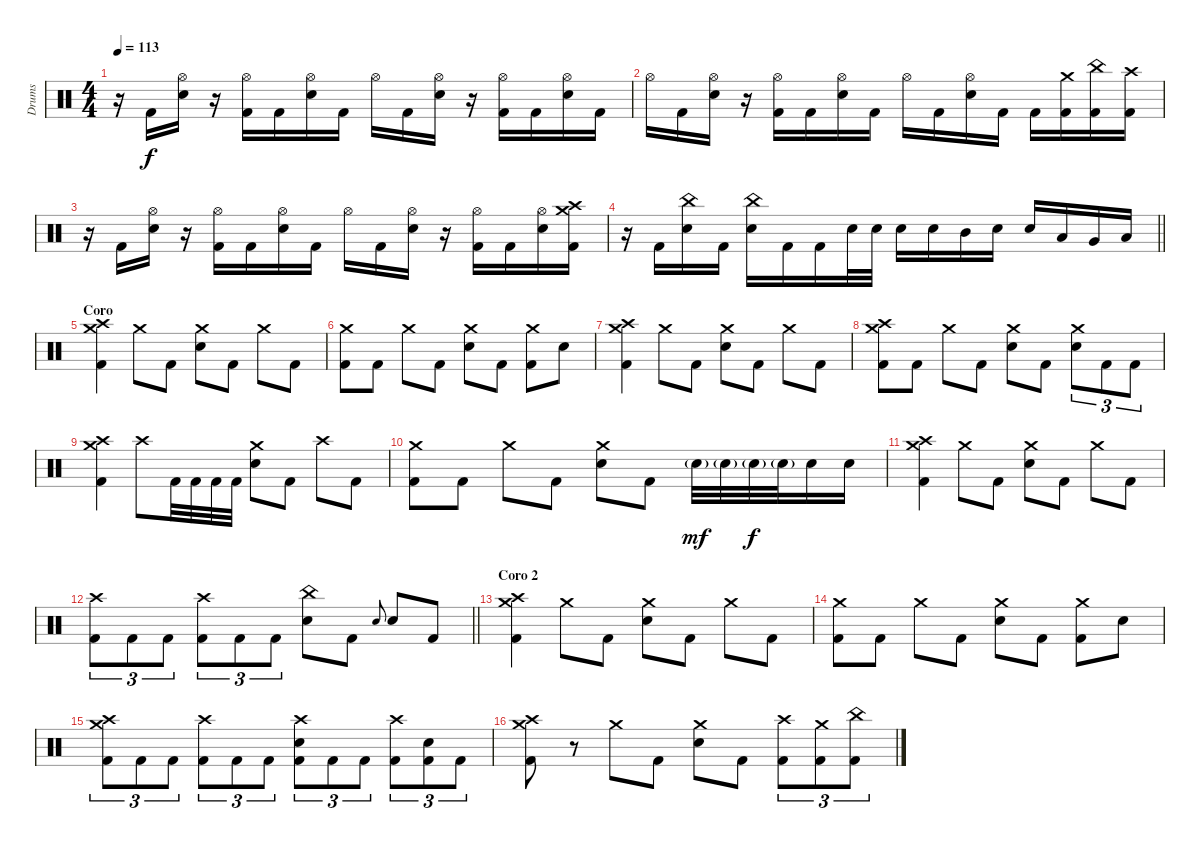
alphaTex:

\track ("Drums" "Drums") {instrument percussion}
\staff {score}
\articulation defaults
\ts (4 4)
\tempo 113
\clef neutral
\ks c
r.16{dy f} "Kick (hit) 2".16 ("Hi-Hat (open)" "Electric Snare (hit)").16 r.16 ("Hi-Hat (open)" "Kick (hit) 2").16 "Kick (hit) 2".16 ("Hi-Hat (open)" "Electric Snare (hit)").16 "Kick (hit) 2".16 "Hi-Hat (open)".16 "Kick (hit) 2".16 ("Hi-Hat (open)" "Electric Snare (hit)").16 r.16 ("Hi-Hat (open)" "Kick (hit) 2").16 "Kick (hit) 2".16 ("Hi-Hat (open)" "Electric Snare (hit)").16 "Kick (hit) 2".16 |
"Hi-Hat (open)".16 "Kick (hit) 2".16 ("Hi-Hat (open)" "Electric Snare (hit)").16 r.16 ("Hi-Hat (open)" "Kick (hit) 2").16 "Kick (hit) 2".16 ("Hi-Hat (open)" "Electric Snare (hit)").16 "Kick (hit) 2".16 "Hi-Hat (open)".16 "Kick (hit) 2".16 ("Hi-Hat (open)" "Electric Snare (hit)").16 "Kick (hit) 2".16 "Kick (hit) 2".16 ("Crash medium (hit)" "Kick (hit) 2").16 ("China (hit)" "Kick (hit) 2").16 ("Crash high (hit)" "Kick (hit) 2").16 |
r.16 "Kick (hit) 2".16 ("Hi-Hat (open)" "Electric Snare (hit)").16 r.16 ("Hi-Hat (open)" "Kick (hit) 2").16 "Kick (hit) 2".16 ("Hi-Hat (open)" "Electric Snare (hit)").16 "Kick (hit) 2".16 "Hi-Hat (open)".16 "Kick (hit) 2".16 ("Hi-Hat (open)" "Electric Snare (hit)").16 r.16 ("Hi-Hat (open)" "Kick (hit) 2").16 "Kick (hit) 2".16 ("Hi-Hat (open)" "Electric Snare (hit)").16 ("Crash high (hit)" "Crash medium (hit)" "Kick (hit) 2").16 |
\barLineRight lightlight
r.16 "Kick (hit) 2".16 ("China (hit)" "Electric Snare (hit)").16 "Kick (hit) 2".16 ("China (hit)" "Electric Snare (hit)").16 "Kick (hit) 2".16 "Kick (hit) 2".16 "Electric Snare (hit)".32 "Electric Snare (hit)".32 "Electric Snare (hit)".16 "Electric Snare (hit)".16 "Mid Tom (hit)".16 "Electric Snare (hit)".16 "Electric Snare (hit)".16 "Low Tom (hit)".16 "Very Low Tom (hit)".16 "Low Floor Tom (hit)".16 |
\section ("" "Coro")
("Crash medium (hit)" "Crash high (hit)" "Kick (hit) 2").4 "Crash medium (hit)".8 "Kick (hit) 2".8 ("Crash medium (hit)" "Electric Snare (hit)").8 "Kick (hit) 2".8 "Crash medium (hit)".8 "Kick (hit) 2".8 |
("Crash medium (hit)" "Kick (hit) 2").8 "Kick (hit) 2".8 "Crash medium (hit)".8 "Kick (hit) 2".8 ("Crash medium (hit)" "Electric Snare (hit)").8 "Kick (hit) 2".8 ("Crash medium (hit)" "Kick (hit) 2").8 "Electric Snare (hit)".8 |
("Crash medium (hit)" "Crash high (hit)" "Kick (hit) 2").4 "Crash medium (hit)".8 "Kick (hit) 2".8 ("Crash medium (hit)" "Electric Snare (hit)").8 "Kick (hit) 2".8 "Crash medium (hit)".8 "Kick (hit) 2".8 |
("Crash medium (hit)" "Crash high (hit)" "Kick (hit) 2").8 "Kick (hit) 2".8 "Crash medium (hit)".8 "Kick (hit) 2".8 ("Crash medium (hit)" "Electric Snare (hit)").8 "Kick (hit) 2".8 ("Crash medium (hit)" "Electric Snare (hit)").8{tu (3 2)} "Kick (hit) 2".8{tu (3 2)} "Kick (hit) 2".8{tu (3 2)} |
("Crash medium (hit)" "Crash high (hit)" "Kick (hit) 2").4 "Crash high (hit)".8 "Kick (hit) 2".32 "Kick (hit) 2".32 "Kick (hit) 2".32 "Kick (hit) 2".32 ("Crash medium (hit)" "Electric Snare (hit)").8 "Kick (hit) 2".8 "Crash high (hit)".8 "Kick (hit) 2".8 |
("Crash medium (hit)" "Kick (hit) 2").8 "Kick (hit) 2".8 "Crash medium (hit)".8 "Kick (hit) 2".8 ("Crash medium (hit)" "Electric Snare (hit)").8 "Kick (hit) 2".8 "Electric Snare (hit)"{g}.32{dy mf} "Electric Snare (hit)"{g}.32 "Electric Snare (hit)"{g}.32{dy f} "Electric Snare (hit)"{g}.32 "Electric Snare (hit)".16 "Electric Snare (hit)".16 |
("Crash medium (hit)" "Crash high (hit)" "Kick (hit) 2").4 "Crash medium (hit)".8 "Kick (hit) 2".8 ("Crash medium (hit)" "Electric Snare (hit)").8 "Kick (hit) 2".8 "Crash medium (hit)".8 "Kick (hit) 2".8 |
\barLineRight lightlight
("Crash high (hit)" "Kick (hit) 2").8{tu (3 2)} "Kick (hit) 2".8{tu (3 2)} "Kick (hit) 2".8{tu (3 2)} ("Crash high (hit)" "Kick (hit) 2").8{tu (3 2)} "Kick (hit) 2".8{tu (3 2)} "Kick (hit) 2".8{tu (3 2)} ("China (hit)" "Electric Snare (hit)").8 "Kick (hit) 2".8 "Electric Snare (hit)".8{gr onbeat} "Electric Snare (hit)".8 "Kick (hit) 2".8 |
\section ("" "Coro 2")
("Crash medium (hit)" "Crash high (hit)" "Kick (hit) 2").4 "Crash medium (hit)".8 "Kick (hit) 2".8 ("Crash medium (hit)" "Electric Snare (hit)").8 "Kick (hit) 2".8 "Crash medium (hit)".8 "Kick (hit) 2".8 |
("Crash medium (hit)" "Kick (hit) 2").8 "Kick (hit) 2".8 "Crash medium (hit)".8 "Kick (hit) 2".8 ("Crash medium (hit)" "Electric Snare (hit)").8 "Kick (hit) 2".8 ("Crash medium (hit)" "Kick (hit) 2").8 "Electric Snare (hit)".8 |
("Crash medium (hit)" "Crash high (hit)" "Kick (hit) 2").8{tu (3 2)} "Kick (hit) 2".8{tu (3 2)} "Kick (hit) 2".8{tu (3 2)} ("Crash high (hit)" "Kick (hit) 2").8{tu (3 2)} "Kick (hit) 2".8{tu (3 2)} "Kick (hit) 2".8{tu (3 2)} ("Crash high (hit)" "Electric Snare (hit)" "Kick (hit) 2").8{tu (3 2)} "Kick (hit) 2".8{tu (3 2)} "Kick (hit) 2".8{tu (3 2)} ("Crash high (hit)" "Kick (hit) 2").8{tu (3 2)} ("Electric Snare (hit)" "Kick (hit) 2").8{tu (3 2)} "Kick (hit) 2".8{tu (3 2)} |
("Crash medium (hit)" "Crash high (hit)" "Kick (hit) 2").8 r.8 "Crash medium (hit)".8 "Kick (hit) 2".8 ("Crash medium (hit)" "Electric Snare (hit)").8 "Kick (hit) 2".8 ("Crash high (hit)" "Kick (hit) 2").8{tu (3 2)} ("Crash medium (hit)" "Kick (hit) 2").8{tu (3 2)} ("China (hit)" "Kick (hit) 2").8{tu (3 2)}
